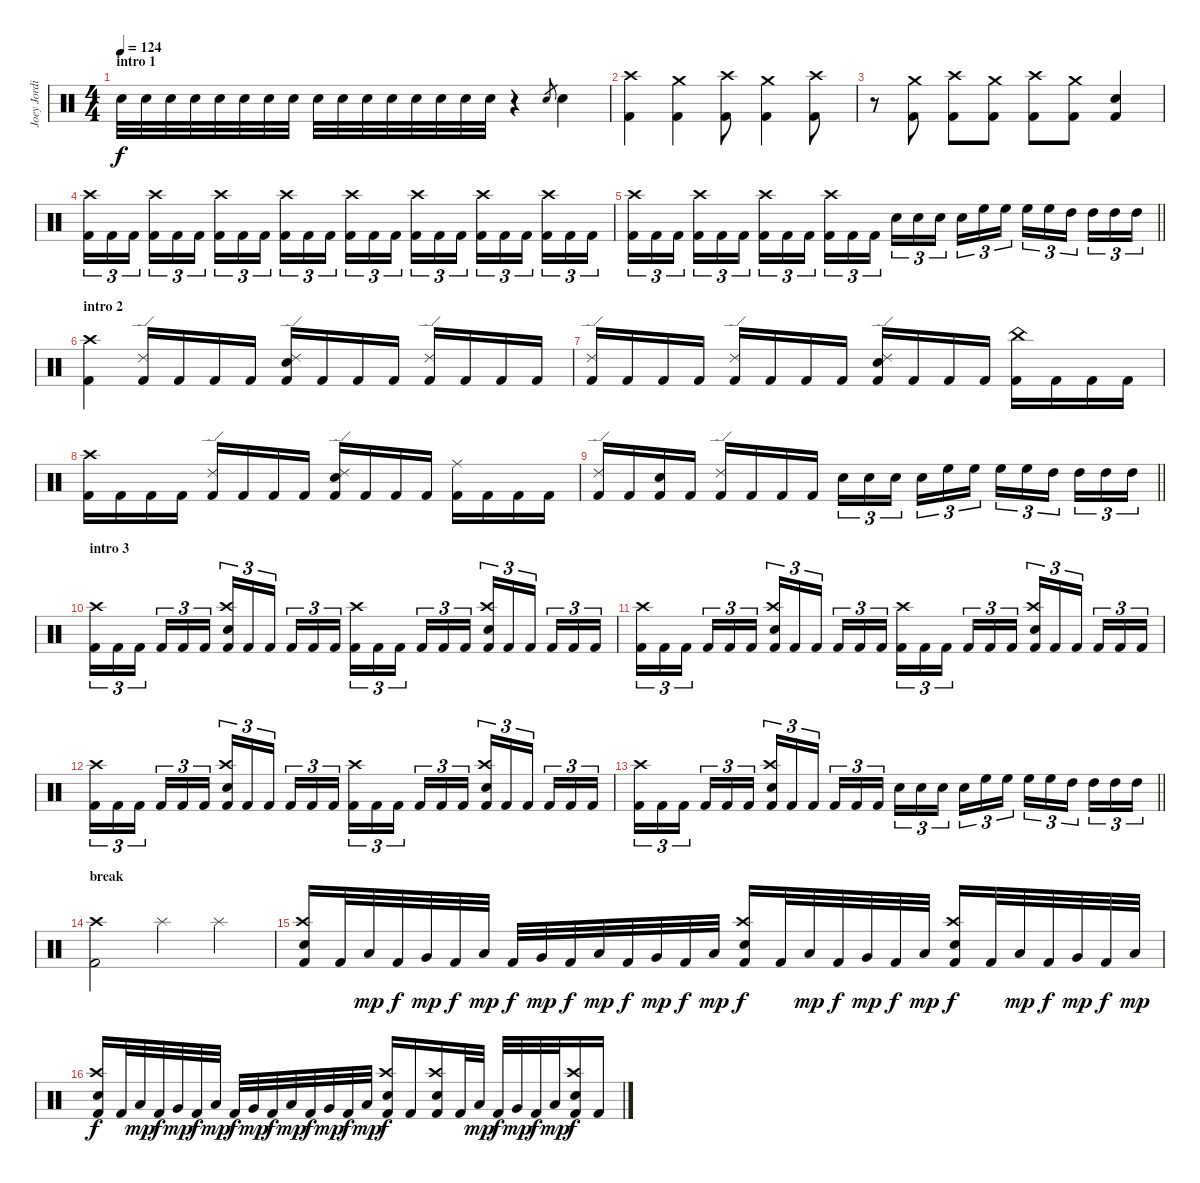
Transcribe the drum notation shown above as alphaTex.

\track ("Joey Jordison" "Joey Jordi") {instrument percussion}
\staff
\articulation defaults
\ts (4 4)
\section ("" "intro 1")
\tempo 124
\clef neutral
\ks c "Snare (hit) 2".32{dy f volume 1} "Snare (hit) 2".32{volume 2} "Snare (hit) 2".32{volume 3} "Snare (hit) 2".32{volume 4} "Snare (hit) 2".32{volume 4} "Snare (hit) 2".32{volume 5} "Snare (hit) 2".32{volume 5} "Snare (hit) 2".32{volume 6} "Snare (hit) 2".32{volume 6} "Snare (hit) 2".32{volume 7} "Snare (hit) 2".32{volume 7} "Snare (hit) 2".32{volume 8} "Snare (hit) 2".32{volume 8} "Snare (hit) 2".32{volume 9} "Snare (hit) 2".32{volume 10} "Snare (hit) 2".32{volume 11}
r.4 "Electric Snare (hit)".8{gr} "Electric Snare (hit)".4{volume 16} |
("Crash high (hit)" "Kick (hit) 2").4 ("Crash medium (hit)" "Kick (hit) 2").4 ("Crash high (hit)" "Kick (hit) 2").8 ("Crash medium (hit)" "Kick (hit) 2").4 ("Crash high (hit)" "Kick (hit) 2").8 |
r.8 ("Crash medium (hit)" "Kick (hit) 2").8 ("Crash high (hit)" "Kick (hit) 2").8 ("Crash medium (hit)" "Kick (hit) 2").8 ("Crash high (hit)" "Kick (hit) 2").8 ("Crash medium (hit)" "Kick (hit) 2").8 ("Electric Snare (hit)" "Kick (hit) 2").4 |
("Crash high (hit)" "Kick (hit) 2").16{tu (3 2)} "Kick (hit) 2".16{tu (3 2)} "Kick (hit) 2".16{tu (3 2) beam splitsecondary} ("Crash high (hit)" "Kick (hit) 2").16{tu (3 2)} "Kick (hit) 2".16{tu (3 2)} "Kick (hit) 2".16{tu (3 2)} ("Crash high (hit)" "Kick (hit) 2").16{tu (3 2)} "Kick (hit) 2".16{tu (3 2)} "Kick (hit) 2".16{tu (3 2) beam splitsecondary} ("Crash high (hit)" "Kick (hit) 2").16{tu (3 2)} "Kick (hit) 2".16{tu (3 2)} "Kick (hit) 2".16{tu (3 2)} ("Crash high (hit)" "Kick (hit) 2").16{tu (3 2)} "Kick (hit) 2".16{tu (3 2)} "Kick (hit) 2".16{tu (3 2) beam splitsecondary} ("Crash high (hit)" "Kick (hit) 2").16{tu (3 2)} "Kick (hit) 2".16{tu (3 2)} "Kick (hit) 2".16{tu (3 2)} ("Crash high (hit)" "Kick (hit) 2").16{tu (3 2)} "Kick (hit) 2".16{tu (3 2)} "Kick (hit) 2".16{tu (3 2) beam splitsecondary} ("Crash high (hit)" "Kick (hit) 2").16{tu (3 2)} "Kick (hit) 2".16{tu (3 2)} "Kick (hit) 2".16{tu (3 2)} |
\barLineRight lightlight
("Crash high (hit)" "Kick (hit) 2").16{tu (3 2)} "Kick (hit) 2".16{tu (3 2)} "Kick (hit) 2".16{tu (3 2) beam splitsecondary} ("Crash high (hit)" "Kick (hit) 2").16{tu (3 2)} "Kick (hit) 2".16{tu (3 2)} "Kick (hit) 2".16{tu (3 2)} ("Crash high (hit)" "Kick (hit) 2").16{tu (3 2)} "Kick (hit) 2".16{tu (3 2)} "Kick (hit) 2".16{tu (3 2) beam splitsecondary} ("Crash high (hit)" "Kick (hit) 2").16{tu (3 2)} "Kick (hit) 2".16{tu (3 2)} "Kick (hit) 2".16{tu (3 2)} "Electric Snare (hit)".16{tu (3 2)} "Electric Snare (hit)".16{tu (3 2)} "Electric Snare (hit)".16{tu (3 2) beam splitsecondary} "Electric Snare (hit)".16{tu (3 2)} "High Floor Tom (hit)".16{tu (3 2)} "High Floor Tom (hit)".16{tu (3 2)} "High Floor Tom (hit)".16{tu (3 2)} "High Floor Tom (hit)".16{tu (3 2)} "High Tom (hit)".16{tu (3 2) beam splitsecondary} "High Tom (hit)".16{tu (3 2)} "High Tom (hit)".16{tu (3 2)} "High Tom (hit)".16{tu (3 2)} |
\section ("" "intro 2")
("Crash high (hit)" "Kick (hit) 2").4 ("Ride (edge) 2" "Kick (hit) 2").16 "Kick (hit) 2".16 "Kick (hit) 2".16 "Kick (hit) 2".16 ("Ride (edge) 2" "Electric Snare (hit)" "Kick (hit) 2").16 "Kick (hit) 2".16 "Kick (hit) 2".16 "Kick (hit) 2".16 ("Ride (edge) 2" "Kick (hit) 2").16 "Kick (hit) 2".16 "Kick (hit) 2".16 "Kick (hit) 2".16 |
("Ride (edge) 2" "Kick (hit) 2").16 "Kick (hit) 2".16 "Kick (hit) 2".16 "Kick (hit) 2".16 ("Ride (edge) 2" "Kick (hit) 2").16 "Kick (hit) 2".16 "Kick (hit) 2".16 "Kick (hit) 2".16 ("Ride (edge) 2" "Electric Snare (hit)" "Kick (hit) 2").16 "Kick (hit) 2".16 "Kick (hit) 2".16 "Kick (hit) 2".16 ("China (hit)" "Kick (hit) 2").16 "Kick (hit) 2".16 "Kick (hit) 2".16 "Kick (hit) 2".16 |
("Crash high (hit)" "Kick (hit) 2").16 "Kick (hit) 2".16 "Kick (hit) 2".16 "Kick (hit) 2".16 ("Ride (edge) 2" "Kick (hit) 2").16 "Kick (hit) 2".16 "Kick (hit) 2".16 "Kick (hit) 2".16 ("Ride (edge) 2" "Electric Snare (hit)" "Kick (hit) 2").16 "Kick (hit) 2".16 "Kick (hit) 2".16 "Kick (hit) 2".16 ("Ride (middle)" "Kick (hit) 2").16 "Kick (hit) 2".16 "Kick (hit) 2".16 "Kick (hit) 2".16 |
\barLineRight lightlight
("Ride (edge) 2" "Kick (hit) 2").16 "Kick (hit) 2".16 ("Electric Snare (hit)" "Kick (hit) 2").16 "Kick (hit) 2".16 ("Ride (edge) 2" "Kick (hit) 2").16 "Kick (hit) 2".16 "Kick (hit) 2".16 "Kick (hit) 2".16 "Electric Snare (hit)".16{tu (3 2)} "Electric Snare (hit)".16{tu (3 2)} "Electric Snare (hit)".16{tu (3 2) beam splitsecondary} "Electric Snare (hit)".16{tu (3 2)} "High Floor Tom (hit)".16{tu (3 2)} "High Floor Tom (hit)".16{tu (3 2)} "High Floor Tom (hit)".16{tu (3 2)} "High Floor Tom (hit)".16{tu (3 2)} "High Tom (hit)".16{tu (3 2) beam splitsecondary} "High Tom (hit)".16{tu (3 2)} "High Tom (hit)".16{tu (3 2)} "High Tom (hit)".16{tu (3 2)} |
\section ("" "intro 3")
("Crash high (hit)" "Kick (hit) 2").16{tu (3 2)} "Kick (hit) 2".16{tu (3 2)} "Kick (hit) 2".16{tu (3 2) beam splitsecondary} "Kick (hit) 2".16{tu (3 2)} "Kick (hit) 2".16{tu (3 2)} "Kick (hit) 2".16{tu (3 2)} ("Crash high (hit)" "Electric Snare (hit)" "Kick (hit) 2").16{tu (3 2)} "Kick (hit) 2".16{tu (3 2)} "Kick (hit) 2".16{tu (3 2) beam splitsecondary} "Kick (hit) 2".16{tu (3 2)} "Kick (hit) 2".16{tu (3 2)} "Kick (hit) 2".16{tu (3 2)} ("Crash high (hit)" "Kick (hit) 2").16{tu (3 2)} "Kick (hit) 2".16{tu (3 2)} "Kick (hit) 2".16{tu (3 2) beam splitsecondary} "Kick (hit) 2".16{tu (3 2)} "Kick (hit) 2".16{tu (3 2)} "Kick (hit) 2".16{tu (3 2)} ("Crash high (hit)" "Electric Snare (hit)" "Kick (hit) 2").16{tu (3 2)} "Kick (hit) 2".16{tu (3 2)} "Kick (hit) 2".16{tu (3 2) beam splitsecondary} "Kick (hit) 2".16{tu (3 2)} "Kick (hit) 2".16{tu (3 2)} "Kick (hit) 2".16{tu (3 2)} |
("Crash high (hit)" "Kick (hit) 2").16{tu (3 2)} "Kick (hit) 2".16{tu (3 2)} "Kick (hit) 2".16{tu (3 2) beam splitsecondary} "Kick (hit) 2".16{tu (3 2)} "Kick (hit) 2".16{tu (3 2)} "Kick (hit) 2".16{tu (3 2)} ("Crash high (hit)" "Electric Snare (hit)" "Kick (hit) 2").16{tu (3 2)} "Kick (hit) 2".16{tu (3 2)} "Kick (hit) 2".16{tu (3 2) beam splitsecondary} "Kick (hit) 2".16{tu (3 2)} "Kick (hit) 2".16{tu (3 2)} "Kick (hit) 2".16{tu (3 2)} ("Crash high (hit)" "Kick (hit) 2").16{tu (3 2)} "Kick (hit) 2".16{tu (3 2)} "Kick (hit) 2".16{tu (3 2) beam splitsecondary} "Kick (hit) 2".16{tu (3 2)} "Kick (hit) 2".16{tu (3 2)} "Kick (hit) 2".16{tu (3 2)} ("Crash high (hit)" "Electric Snare (hit)" "Kick (hit) 2").16{tu (3 2)} "Kick (hit) 2".16{tu (3 2)} "Kick (hit) 2".16{tu (3 2) beam splitsecondary} "Kick (hit) 2".16{tu (3 2)} "Kick (hit) 2".16{tu (3 2)} "Kick (hit) 2".16{tu (3 2)} |
("Crash high (hit)" "Kick (hit) 2").16{tu (3 2)} "Kick (hit) 2".16{tu (3 2)} "Kick (hit) 2".16{tu (3 2) beam splitsecondary} "Kick (hit) 2".16{tu (3 2)} "Kick (hit) 2".16{tu (3 2)} "Kick (hit) 2".16{tu (3 2)} ("Crash high (hit)" "Electric Snare (hit)" "Kick (hit) 2").16{tu (3 2)} "Kick (hit) 2".16{tu (3 2)} "Kick (hit) 2".16{tu (3 2) beam splitsecondary} "Kick (hit) 2".16{tu (3 2)} "Kick (hit) 2".16{tu (3 2)} "Kick (hit) 2".16{tu (3 2)} ("Crash high (hit)" "Kick (hit) 2").16{tu (3 2)} "Kick (hit) 2".16{tu (3 2)} "Kick (hit) 2".16{tu (3 2) beam splitsecondary} "Kick (hit) 2".16{tu (3 2)} "Kick (hit) 2".16{tu (3 2)} "Kick (hit) 2".16{tu (3 2)} ("Crash high (hit)" "Electric Snare (hit)" "Kick (hit) 2").16{tu (3 2)} "Kick (hit) 2".16{tu (3 2)} "Kick (hit) 2".16{tu (3 2) beam splitsecondary} "Kick (hit) 2".16{tu (3 2)} "Kick (hit) 2".16{tu (3 2)} "Kick (hit) 2".16{tu (3 2)} |
\barLineRight lightlight
("Crash high (hit)" "Kick (hit) 2").16{tu (3 2)} "Kick (hit) 2".16{tu (3 2)} "Kick (hit) 2".16{tu (3 2) beam splitsecondary} "Kick (hit) 2".16{tu (3 2)} "Kick (hit) 2".16{tu (3 2)} "Kick (hit) 2".16{tu (3 2)} ("Crash high (hit)" "Electric Snare (hit)" "Kick (hit) 2").16{tu (3 2)} "Kick (hit) 2".16{tu (3 2)} "Kick (hit) 2".16{tu (3 2) beam splitsecondary} "Kick (hit) 2".16{tu (3 2)} "Kick (hit) 2".16{tu (3 2)} "Kick (hit) 2".16{tu (3 2)} "Electric Snare (hit)".16{tu (3 2)} "Electric Snare (hit)".16{tu (3 2)} "Electric Snare (hit)".16{tu (3 2) beam splitsecondary} "Electric Snare (hit)".16{tu (3 2)} "High Floor Tom (hit)".16{tu (3 2)} "High Floor Tom (hit)".16{tu (3 2)} "High Floor Tom (hit)".16{tu (3 2)} "High Floor Tom (hit)".16{tu (3 2)} "High Tom (hit)".16{tu (3 2) beam splitsecondary} "High Tom (hit)".16{tu (3 2)} "High Tom (hit)".16{tu (3 2)} "High Tom (hit)".16{tu (3 2)} |
\section ("" "break")
("Crash high (hit)" "Kick (hit) 2").2 "Splash (hit)".4 "Splash (hit)".4 |
("Crash high (hit)" "Electric Snare (hit)" "Kick (hit) 2").16 "Kick (hit) 2".32 "Low Tom (hit)".32{dy mp} "Kick (hit) 2".32{dy f} "Very Low Tom (hit)".32{dy mp} "Kick (hit) 2".32{dy f} "Low Tom (hit)".32{dy mp} "Kick (hit) 2".32{dy f} "Very Low Tom (hit)".32{dy mp} "Kick (hit) 2".32{dy f} "Low Tom (hit)".32{dy mp} "Kick (hit) 2".32{dy f} "Very Low Tom (hit)".32{dy mp} "Kick (hit) 2".32{dy f} "Low Tom (hit)".32{dy mp} ("Crash high (hit)" "Electric Snare (hit)" "Kick (hit) 2").16{dy f} "Kick (hit) 2".32 "Low Tom (hit)".32{dy mp} "Kick (hit) 2".32{dy f} "Very Low Tom (hit)".32{dy mp} "Kick (hit) 2".32{dy f} "Low Tom (hit)".32{dy mp} ("Crash high (hit)" "Electric Snare (hit)" "Kick (hit) 2").16{dy f} "Kick (hit) 2".32 "Low Tom (hit)".32{dy mp} "Kick (hit) 2".32{dy f} "Very Low Tom (hit)".32{dy mp} "Kick (hit) 2".32{dy f} "Low Tom (hit)".32{dy mp} |
("Crash high (hit)" "Electric Snare (hit)" "Kick (hit) 2").16{dy f} "Kick (hit) 2".32 "Low Tom (hit)".32{dy mp} "Kick (hit) 2".32{dy f} "Very Low Tom (hit)".32{dy mp} "Kick (hit) 2".32{dy f} "Low Tom (hit)".32{dy mp} "Kick (hit) 2".32{dy f} "Very Low Tom (hit)".32{dy mp} "Kick (hit) 2".32{dy f} "Low Tom (hit)".32{dy mp} "Kick (hit) 2".32{dy f} "Very Low Tom (hit)".32{dy mp} "Kick (hit) 2".32{dy f} "Low Tom (hit)".32{dy mp} ("Crash high (hit)" "Electric Snare (hit)" "Kick (hit) 2").16{dy f} "Kick (hit) 2".16 ("Crash high (hit)" "Electric Snare (hit)" "Kick (hit) 2").16 "Kick (hit) 2".32 "Low Tom (hit)".32{dy mp} "Kick (hit) 2".32{dy f} "Very Low Tom (hit)".32{dy mp} "Kick (hit) 2".32{dy f} "Low Tom (hit)".32{dy mp} ("Crash high (hit)" "Electric Snare (hit)" "Kick (hit) 2").16{dy f} "Kick (hit) 2".16
